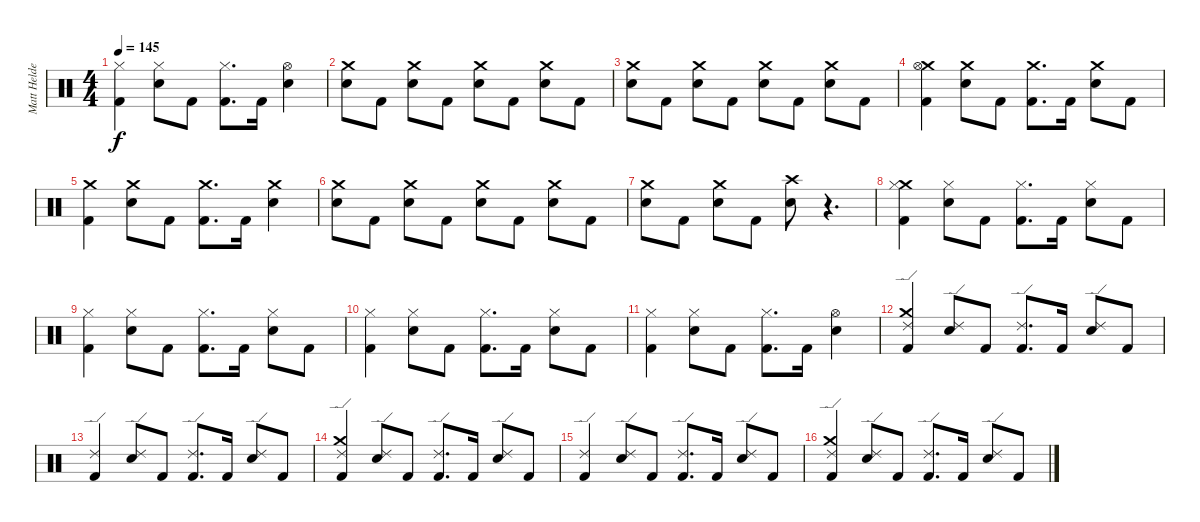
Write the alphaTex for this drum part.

\track ("Matt Helders (Percussion)" "Matt Helde") {instrument percussion}
\staff {score}
\articulation defaults
\ts (4 4)
\tempo 145
\clef neutral
\ks c
("Hi-Hat (closed)" "Kick (hit) 2").4{dy f} ("Hi-Hat (closed)" "Snare (hit) 2").8 "Kick (hit) 2".8 ("Hi-Hat (closed)" "Kick (hit) 2").8{d} "Kick (hit) 2".16 ("Hi-Hat (open)" "Snare (hit) 2").4 |
("Crash medium (hit)" "Snare (hit) 2").8 "Kick (hit) 2".8 ("Crash medium (hit)" "Snare (hit) 2").8 "Kick (hit) 2".8 ("Crash medium (hit)" "Snare (hit) 2").8 "Kick (hit) 2".8 ("Crash medium (hit)" "Snare (hit) 2").8 "Kick (hit) 2".8 |
("Crash medium (hit)" "Snare (hit) 2").8 "Kick (hit) 2".8 ("Crash medium (hit)" "Snare (hit) 2").8 "Kick (hit) 2".8 ("Crash medium (hit)" "Snare (hit) 2").8 "Kick (hit) 2".8 ("Crash medium (hit)" "Snare (hit) 2").8 "Kick (hit) 2".8 |
("Crash medium (hit)" "Hi-Hat (open)" "Kick (hit) 2").4 ("Crash medium (hit)" "Snare (hit) 2").8 "Kick (hit) 2".8 ("Crash medium (hit)" "Kick (hit) 2").8{d} "Kick (hit) 2".16 ("Crash medium (hit)" "Snare (hit) 2").8 "Kick (hit) 2".8 |
("Crash medium (hit)" "Kick (hit) 2").4 ("Crash medium (hit)" "Snare (hit) 2").8 "Kick (hit) 2".8 ("Crash medium (hit)" "Kick (hit) 2").8{d} "Kick (hit) 2".16 ("Crash medium (hit)" "Snare (hit) 2").4 |
("Crash medium (hit)" "Snare (hit) 2").8 "Kick (hit) 2".8 ("Crash medium (hit)" "Snare (hit) 2").8 "Kick (hit) 2".8 ("Crash medium (hit)" "Snare (hit) 2").8 "Kick (hit) 2".8 ("Crash medium (hit)" "Snare (hit) 2").8 "Kick (hit) 2".8 |
("Crash medium (hit)" "Snare (hit) 2").8 "Kick (hit) 2".8 ("Crash medium (hit)" "Snare (hit) 2").8 "Kick (hit) 2".8 ("Crash high (hit)" "Snare (hit) 2").8 r.4{d} |
("Crash medium (hit)" "Hi-Hat (closed)" "Kick (hit) 2").4 ("Hi-Hat (closed)" "Snare (hit) 2").8 "Kick (hit) 2".8 ("Hi-Hat (closed)" "Kick (hit) 2").8{d} "Kick (hit) 2".16 ("Hi-Hat (closed)" "Snare (hit) 2").8 "Kick (hit) 2".8 |
("Hi-Hat (closed)" "Kick (hit) 2").4 ("Hi-Hat (closed)" "Snare (hit) 2").8 "Kick (hit) 2".8 ("Hi-Hat (closed)" "Kick (hit) 2").8{d} "Kick (hit) 2".16 ("Hi-Hat (closed)" "Snare (hit) 2").8 "Kick (hit) 2".8 |
("Hi-Hat (closed)" "Kick (hit) 2").4 ("Hi-Hat (closed)" "Snare (hit) 2").8 "Kick (hit) 2".8 ("Hi-Hat (closed)" "Kick (hit) 2").8{d} "Kick (hit) 2".16 ("Hi-Hat (closed)" "Snare (hit) 2").8 "Kick (hit) 2".8 |
("Hi-Hat (closed)" "Kick (hit) 2").4 ("Hi-Hat (closed)" "Snare (hit) 2").8 "Kick (hit) 2".8 ("Hi-Hat (closed)" "Kick (hit) 2").8{d} "Kick (hit) 2".16 ("Hi-Hat (open)" "Snare (hit) 2").4 |
("Crash medium (hit)" "Ride (edge) 2" "Kick (hit) 2").4 ("Ride (edge) 2" "Snare (hit) 2").8 "Kick (hit) 2".8 ("Ride (edge) 2" "Kick (hit) 2").8{d} "Kick (hit) 2".16 ("Ride (edge) 2" "Snare (hit) 2").8 "Kick (hit) 2".8 |
("Ride (edge) 2" "Kick (hit) 2").4 ("Ride (edge) 2" "Snare (hit) 2").8 "Kick (hit) 2".8 ("Ride (edge) 2" "Kick (hit) 2").8{d} "Kick (hit) 2".16 ("Ride (edge) 2" "Snare (hit) 2").8 "Kick (hit) 2".8 |
("Crash medium (hit)" "Ride (edge) 2" "Kick (hit) 2").4 ("Ride (edge) 2" "Snare (hit) 2").8 "Kick (hit) 2".8 ("Ride (edge) 2" "Kick (hit) 2").8{d} "Kick (hit) 2".16 ("Ride (edge) 2" "Snare (hit) 2").8 "Kick (hit) 2".8 |
("Ride (edge) 2" "Kick (hit) 2").4 ("Ride (edge) 2" "Snare (hit) 2").8 "Kick (hit) 2".8 ("Ride (edge) 2" "Kick (hit) 2").8{d} "Kick (hit) 2".16 ("Ride (edge) 2" "Snare (hit) 2").8 "Kick (hit) 2".8 |
("Crash medium (hit)" "Ride (edge) 2" "Kick (hit) 2").4 ("Ride (edge) 2" "Snare (hit) 2").8 "Kick (hit) 2".8 ("Ride (edge) 2" "Kick (hit) 2").8{d} "Kick (hit) 2".16 ("Ride (edge) 2" "Snare (hit) 2").8 "Kick (hit) 2".8
